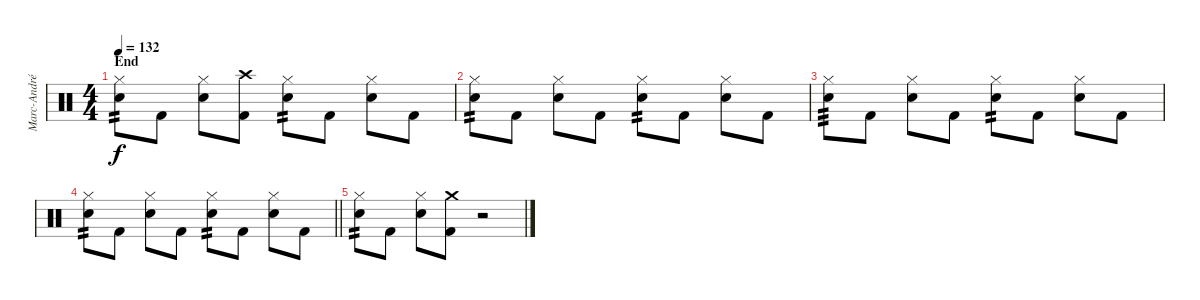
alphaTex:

\track ("Marc-André Barabé" "Marc-André") {instrument percussion}
\staff {score}
\articulation defaults
\ts (4 4)
\section ("" "End")
\tempo 132
\clef neutral
\ks c
("Hi-Hat (closed)" "Electric Snare (hit)").8{tp 2 dy f} "Kick (hit) 2".8 ("Hi-Hat (closed)" "Electric Snare (hit)").8 ("Crash high (hit)" "Kick (hit) 2").8 ("Hi-Hat (closed)" "Electric Snare (hit)").8{tp 2} "Kick (hit) 2".8 ("Hi-Hat (closed)" "Electric Snare (hit)").8 "Kick (hit) 2".8 |
("Hi-Hat (closed)" "Electric Snare (hit)").8{tp 2} "Kick (hit) 2".8 ("Hi-Hat (closed)" "Electric Snare (hit)").8 "Kick (hit) 2".8 ("Hi-Hat (closed)" "Electric Snare (hit)").8{tp 2} "Kick (hit) 2".8 ("Hi-Hat (closed)" "Electric Snare (hit)").8 "Kick (hit) 2".8 |
("Hi-Hat (closed)" "Electric Snare (hit)").8{tp 3} "Kick (hit) 2".8 ("Hi-Hat (closed)" "Electric Snare (hit)").8 "Kick (hit) 2".8 ("Hi-Hat (closed)" "Electric Snare (hit)").8{tp 2} "Kick (hit) 2".8 ("Hi-Hat (closed)" "Electric Snare (hit)").8 "Kick (hit) 2".8 |
\barLineRight lightlight
("Hi-Hat (closed)" "Electric Snare (hit)").8{tp 2} "Kick (hit) 2".8 ("Hi-Hat (closed)" "Electric Snare (hit)").8 "Kick (hit) 2".8 ("Hi-Hat (closed)" "Electric Snare (hit)").8{tp 2} "Kick (hit) 2".8 ("Hi-Hat (closed)" "Electric Snare (hit)").8 "Kick (hit) 2".8 |
("Hi-Hat (closed)" "Electric Snare (hit)").8{tp 2} "Kick (hit) 2".8 ("Hi-Hat (closed)" "Electric Snare (hit)").8 ("Crash medium (hit)" "Kick (hit) 2").8 r.2
